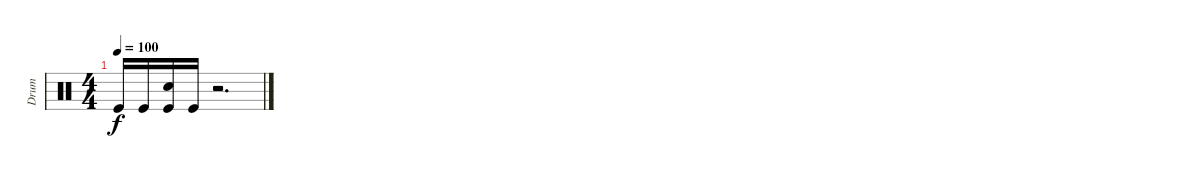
\track ("Drum" "Drum") {instrument percussion}
\staff {score}
\articulation defaults
\ts (4 4)
\tempo 100
\clef neutral
\ks c "Kick (hit)".16{dy f} "Kick (hit)".16
("Snare (hit) 2" "Kick (hit)").16 "Kick (hit)".16 r.2{d}
